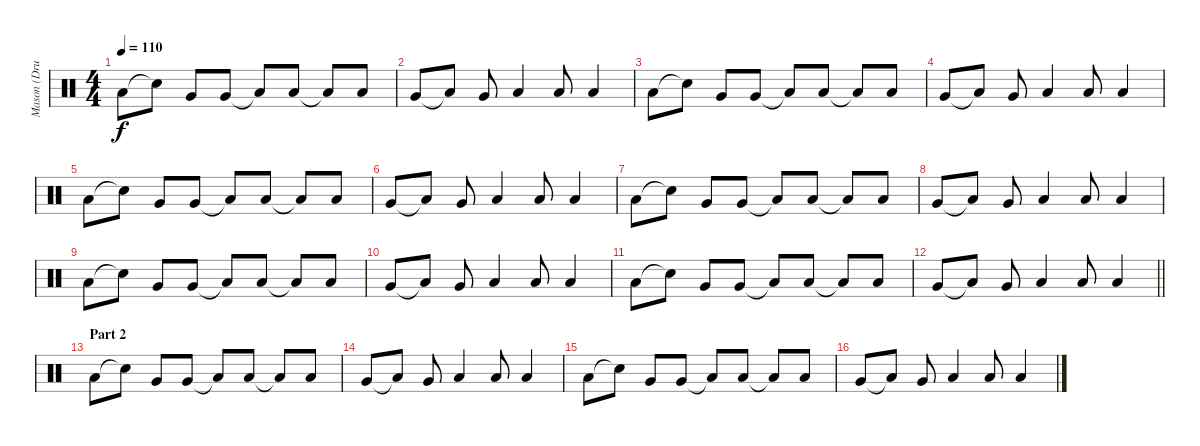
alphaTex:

\track ("Mason (Drums)" "Mason (Dru") {instrument percussion}
\staff {score}
\articulation defaults
\ts (4 4)
\tempo 110
\clef neutral
\ks c "Low Tom (hit)".8{dy f} "Snare (hit)"{t}.8 "Very Low Tom (hit)".8 "Very Low Tom (hit)".8 "Low Floor Tom (hit)"{t}.8 "Low Floor Tom (hit)".8 "Low Tom (hit)"{t}.8 "Low Tom (hit)".8
|
"Very Low Tom (hit)".8 "Low Floor Tom (hit)"{t}.8 "Very Low Tom (hit)".8 "Low Tom (hit)".4 "Low Floor Tom (hit)".8 "Low Floor Tom (hit)".4 |
"Low Tom (hit)".8 "Snare (hit)"{t}.8 "Very Low Tom (hit)".8 "Very Low Tom (hit)".8 "Low Floor Tom (hit)"{t}.8 "Low Floor Tom (hit)".8 "Low Tom (hit)"{t}.8 "Low Tom (hit)".8 |
"Very Low Tom (hit)".8 "Low Floor Tom (hit)"{t}.8 "Very Low Tom (hit)".8 "Low Tom (hit)".4 "Low Floor Tom (hit)".8 "Low Floor Tom (hit)".4 |
"Low Tom (hit)".8 "Snare (hit)"{t}.8 "Very Low Tom (hit)".8 "Very Low Tom (hit)".8 "Low Floor Tom (hit)"{t}.8 "Low Floor Tom (hit)".8 "Low Tom (hit)"{t}.8 "Low Tom (hit)".8 |
"Very Low Tom (hit)".8 "Low Floor Tom (hit)"{t}.8 "Very Low Tom (hit)".8 "Low Tom (hit)".4 "Low Floor Tom (hit)".8 "Low Floor Tom (hit)".4 |
"Low Tom (hit)".8 "Snare (hit)"{t}.8 "Very Low Tom (hit)".8 "Very Low Tom (hit)".8 "Low Floor Tom (hit)"{t}.8 "Low Floor Tom (hit)".8 "Low Tom (hit)"{t}.8 "Low Tom (hit)".8 |
"Very Low Tom (hit)".8 "Low Floor Tom (hit)"{t}.8 "Very Low Tom (hit)".8 "Low Tom (hit)".4 "Low Floor Tom (hit)".8 "Low Floor Tom (hit)".4 |
"Low Tom (hit)".8 "Snare (hit)"{t}.8 "Very Low Tom (hit)".8 "Very Low Tom (hit)".8 "Low Floor Tom (hit)"{t}.8 "Low Floor Tom (hit)".8 "Low Tom (hit)"{t}.8 "Low Tom (hit)".8 |
"Very Low Tom (hit)".8 "Low Floor Tom (hit)"{t}.8 "Very Low Tom (hit)".8 "Low Tom (hit)".4 "Low Floor Tom (hit)".8 "Low Floor Tom (hit)".4 |
"Low Tom (hit)".8 "Snare (hit)"{t}.8 "Very Low Tom (hit)".8 "Very Low Tom (hit)".8 "Low Floor Tom (hit)"{t}.8 "Low Floor Tom (hit)".8 "Low Tom (hit)"{t}.8 "Low Tom (hit)".8 |
\barLineRight lightlight "Very Low Tom (hit)".8 "Low Floor Tom (hit)"{t}.8 "Very Low Tom (hit)".8 "Low Tom (hit)".4 "Low Floor Tom (hit)".8 "Low Floor Tom (hit)".4
|
\section ("" "Part 2")
"Low Tom (hit)".8 "Snare (hit)"{t}.8 "Very Low Tom (hit)".8 "Very Low Tom (hit)".8 "Low Floor Tom (hit)"{t}.8 "Low Floor Tom (hit)".8 "Low Tom (hit)"{t}.8 "Low Tom (hit)".8 |
"Very Low Tom (hit)".8 "Low Floor Tom (hit)"{t}.8 "Very Low Tom (hit)".8 "Low Tom (hit)".4 "Low Floor Tom (hit)".8 "Low Floor Tom (hit)".4 |
"Low Tom (hit)".8 "Snare (hit)"{t}.8 "Very Low Tom (hit)".8 "Very Low Tom (hit)".8 "Low Floor Tom (hit)"{t}.8 "Low Floor Tom (hit)".8 "Low Tom (hit)"{t}.8 "Low Tom (hit)".8 |
"Very Low Tom (hit)".8 "Low Floor Tom (hit)"{t}.8 "Very Low Tom (hit)".8 "Low Tom (hit)".4 "Low Floor Tom (hit)".8 "Low Floor Tom (hit)".4
